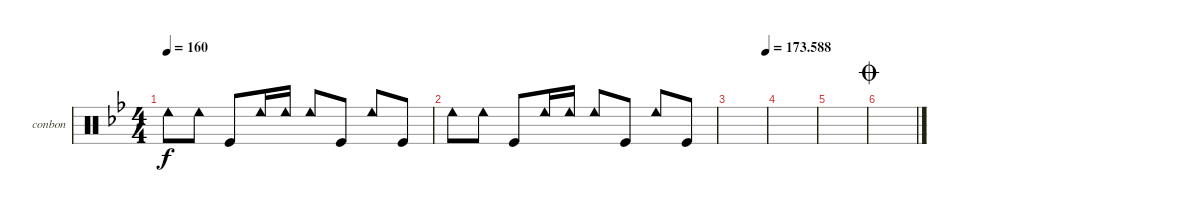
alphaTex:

\defaultSystemsLayout 4
\bracketExtendMode groupsimilarinstruments
\firstSystemTrackNameOrientation horizontal
\otherSystemsTrackNameOrientation horizontal
\track ("Bongos N Congas" "conbon") {instrument percussion}
\staff {score}
\articulation defaults
\ts (4 4)
\tempo 160
\clef neutral
\ks bb "Cowbell low (hit)".8{dy f} "Cowbell low (hit)".8 "Kick (hit)".8 "Cowbell low (hit)".16 "Cowbell low (hit)".16 "Cowbell low (hit)".8 "Kick (hit)".8 "Cowbell low (hit)".8 "Kick (hit)".8
|
"Cowbell low (hit)".8 "Cowbell low (hit)".8 "Kick (hit)".8 "Cowbell low (hit)".16 "Cowbell low (hit)".16 "Cowbell low (hit)".8 "Kick (hit)".8 "Cowbell low (hit)".8 "Kick (hit)".8 |
\tempo (173.588 1)
|
|
|
\jump coda
